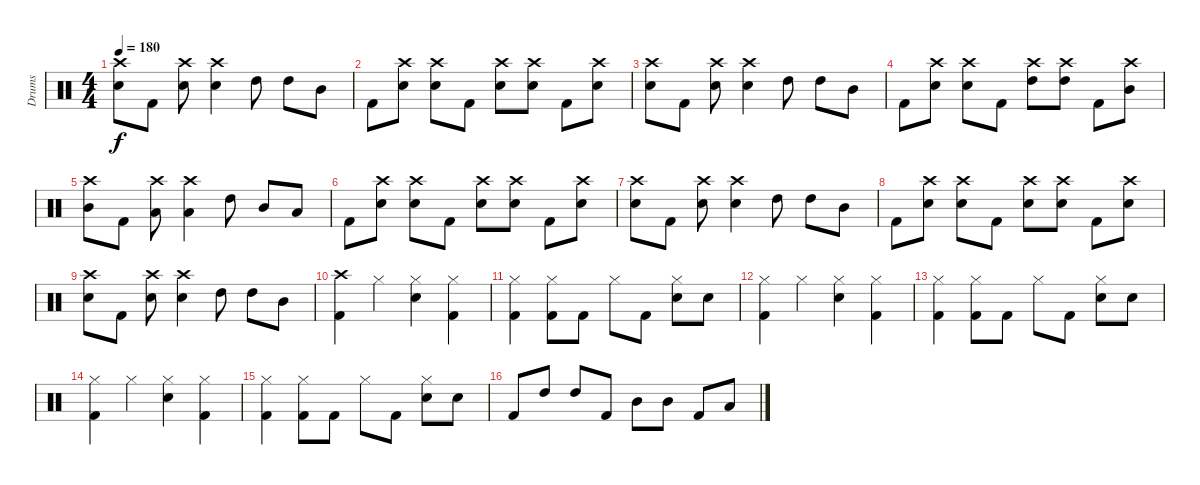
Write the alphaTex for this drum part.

\track ("Drums" "Drums") {instrument percussion}
\staff {score}
\articulation defaults
\ts (4 4)
\tempo 180
\clef neutral
\ks c
("Crash high (hit)" "Snare (hit) 2").8{dy f} "Kick (hit) 2".8 ("Crash high (hit)" "Snare (hit) 2").8 ("Crash high (hit)" "Snare (hit) 2").4 "High Tom (hit)".8 "High Tom (hit)".8 "Mid Tom (hit)".8 |
"Kick (hit) 2".8 ("Crash high (hit)" "Snare (hit) 2").8 ("Crash high (hit)" "Snare (hit) 2").8 "Kick (hit) 2".8 ("Crash high (hit)" "Snare (hit) 2").8 ("Crash high (hit)" "Snare (hit) 2").8 "Kick (hit) 2".8 ("Crash high (hit)" "Snare (hit) 2").8 |
("Crash high (hit)" "Snare (hit) 2").8 "Kick (hit) 2".8 ("Crash high (hit)" "Snare (hit) 2").8 ("Crash high (hit)" "Snare (hit) 2").4 "High Tom (hit)".8 "High Tom (hit)".8 "Mid Tom (hit)".8 |
"Kick (hit) 2".8 ("Crash high (hit)" "Snare (hit) 2").8 ("Crash high (hit)" "Snare (hit) 2").8 "Kick (hit) 2".8 ("Crash high (hit)" "High Tom (hit)").8 ("Crash high (hit)" "High Tom (hit)").8 "Kick (hit) 2".8 ("Crash high (hit)" "Mid Tom (hit)").8 |
("Crash high (hit)" "Mid Tom (hit)").8 "Kick (hit) 2".8 ("Crash high (hit)" "Low Tom (hit)").8 ("Crash high (hit)" "Low Tom (hit)").4 "High Tom (hit)".8 "Mid Tom (hit)".8 "Low Tom (hit)".8 |
"Kick (hit) 2".8 ("Crash high (hit)" "Snare (hit) 2").8 ("Crash high (hit)" "Snare (hit) 2").8 "Kick (hit) 2".8 ("Crash high (hit)" "Snare (hit) 2").8 ("Crash high (hit)" "Snare (hit) 2").8 "Kick (hit) 2".8 ("Crash high (hit)" "Snare (hit) 2").8 |
("Crash high (hit)" "Snare (hit) 2").8 "Kick (hit) 2".8 ("Crash high (hit)" "Snare (hit) 2").8 ("Crash high (hit)" "Snare (hit) 2").4 "High Tom (hit)".8 "High Tom (hit)".8 "Mid Tom (hit)".8 |
"Kick (hit) 2".8 ("Crash high (hit)" "Snare (hit) 2").8 ("Crash high (hit)" "Snare (hit) 2").8 "Kick (hit) 2".8 ("Crash high (hit)" "Snare (hit) 2").8 ("Crash high (hit)" "Snare (hit) 2").8 "Kick (hit) 2".8 ("Crash high (hit)" "Snare (hit) 2").8 |
("Crash high (hit)" "Snare (hit) 2").8 "Kick (hit) 2".8 ("Crash high (hit)" "Snare (hit) 2").8 ("Crash high (hit)" "Snare (hit) 2").4 "High Tom (hit)".8 "High Tom (hit)".8 "Mid Tom (hit)".8 |
("Crash high (hit)" "Kick (hit) 2").4 "Hi-Hat (closed)".4 ("Hi-Hat (closed)" "Snare (hit) 2").4 ("Hi-Hat (closed)" "Kick (hit) 2").4 |
("Hi-Hat (closed)" "Kick (hit) 2").4 ("Hi-Hat (closed)" "Kick (hit) 2").8 "Kick (hit) 2".8 "Hi-Hat (closed)".8 "Kick (hit) 2".8 ("Hi-Hat (closed)" "Snare (hit) 2").8 "Snare (hit) 2".8 |
("Hi-Hat (closed)" "Kick (hit) 2").4 "Hi-Hat (closed)".4 ("Hi-Hat (closed)" "Snare (hit) 2").4 ("Hi-Hat (closed)" "Kick (hit) 2").4 |
("Hi-Hat (closed)" "Kick (hit) 2").4 ("Hi-Hat (closed)" "Kick (hit) 2").8 "Kick (hit) 2".8 "Hi-Hat (closed)".8 "Kick (hit) 2".8 ("Hi-Hat (closed)" "Snare (hit) 2").8 "Snare (hit) 2".8 |
("Hi-Hat (closed)" "Kick (hit) 2").4 "Hi-Hat (closed)".4 ("Hi-Hat (closed)" "Snare (hit) 2").4 ("Hi-Hat (closed)" "Kick (hit) 2").4 |
("Hi-Hat (closed)" "Kick (hit) 2").4 ("Hi-Hat (closed)" "Kick (hit) 2").8 "Kick (hit) 2".8 "Hi-Hat (closed)".8 "Kick (hit) 2".8 ("Hi-Hat (closed)" "Snare (hit) 2").8 "Snare (hit) 2".8 |
"Kick (hit) 2".8 "High Tom (hit)".8 "High Tom (hit)".8 "Kick (hit) 2".8 "Mid Tom (hit)".8 "Mid Tom (hit)".8 "Kick (hit) 2".8 "Low Tom (hit)".8
